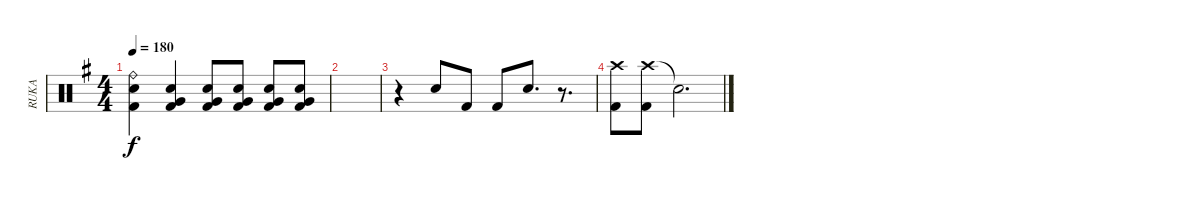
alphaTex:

\track ("RUKA" "RUKA") {instrument percussion}
\staff {score}
\articulation defaults
\ts (4 4)
\tempo 180
\clef neutral
\ks g
("Ride (bell)" "Snare (hit) 2" "Kick (hit) 2").4{dy f} ("Snare (hit) 2" "Very Low Tom (hit)" "Kick (hit) 2").4 ("Snare (hit) 2" "Very Low Tom (hit)" "Kick (hit) 2").8 ("Snare (hit) 2" "Very Low Tom (hit)" "Kick (hit) 2").8 ("Snare (hit) 2" "Very Low Tom (hit)" "Kick (hit) 2").8 ("Snare (hit) 2" "Very Low Tom (hit)" "Kick (hit) 2").8 |
|
r.4 "Snare (hit) 2".8 "Kick (hit) 2".8 "Kick (hit) 2".8 "Snare (hit) 2".8{d} r.8{d} |
("Crash high (hit)" "Kick (hit) 2").8 ("Crash high (hit)" "Kick (hit) 2").8 "Snare (hit)"{t}.2{d}
